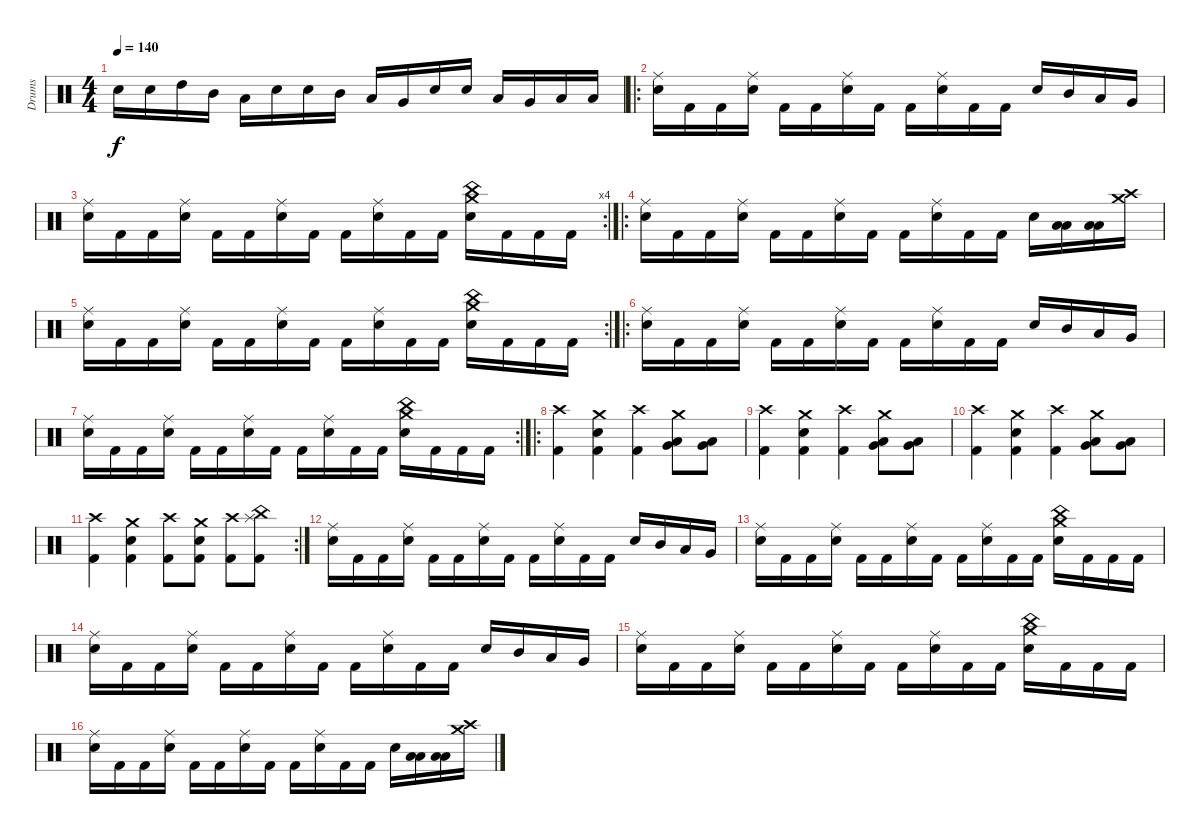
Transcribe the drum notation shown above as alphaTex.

\track ("Drums" "Drums") {instrument percussion}
\staff {score}
\articulation defaults
\ts (4 4)
\tempo 140
\clef neutral
\ks c "Snare (hit) 2".16{dy f} "Snare (hit) 2".16 "High Tom (hit)".16 "Mid Tom (hit)".16 "Low Tom (hit)".16 "Snare (hit) 2".16 "Snare (hit) 2".16 "Mid Tom (hit)".16 "Low Tom (hit)".16 "Very Low Tom (hit)".16 "Snare (hit) 2".16 "Snare (hit) 2".16 "Low Tom (hit)".16 "Very Low Tom (hit)".16 "Low Floor Tom (hit)".16 "Low Floor Tom (hit)".16
|
\ro
("Ride (middle)" "Snare (hit) 2").16 "Kick (hit) 2".16 "Kick (hit) 2".16 ("Ride (middle)" "Snare (hit) 2").16 "Kick (hit) 2".16 "Kick (hit) 2".16 ("Ride (middle)" "Snare (hit) 2").16 "Kick (hit) 2".16 "Kick (hit) 2".16 ("Ride (middle)" "Snare (hit) 2").16 "Kick (hit) 2".16 "Kick (hit) 2".16 "Snare (hit) 2".16 "Mid Tom (hit)".16 "Low Tom (hit)".16 "Very Low Tom (hit)".16 |
\rc 4
("Ride (middle)" "Snare (hit) 2").16 "Kick (hit) 2".16 "Kick (hit) 2".16 ("Ride (middle)" "Snare (hit) 2").16 "Kick (hit) 2".16 "Kick (hit) 2".16 ("Ride (middle)" "Snare (hit) 2").16 "Kick (hit) 2".16 "Kick (hit) 2".16 ("Ride (middle)" "Snare (hit) 2").16 "Kick (hit) 2".16 "Kick (hit) 2".16 ("Crash medium (hit)" "China (hit)" "Snare (hit) 2").16 "Kick (hit) 2".16 "Kick (hit) 2".16 "Kick (hit) 2".16 |
\ro
("Ride (middle)" "Snare (hit) 2").16 "Kick (hit) 2".16 "Kick (hit) 2".16 ("Ride (middle)" "Snare (hit) 2").16 "Kick (hit) 2".16 "Kick (hit) 2".16 ("Ride (middle)" "Snare (hit) 2").16 "Kick (hit) 2".16 "Kick (hit) 2".16 ("Ride (middle)" "Snare (hit) 2").16 "Kick (hit) 2".16 "Kick (hit) 2".16 "Snare (hit) 2".16 ("Low Tom (hit)" "Low Floor Tom (hit)").16 ("Low Tom (hit)" "Low Floor Tom (hit)").16 ("Crash high (hit)" "Crash medium (hit)").16 |
\rc 2
("Ride (middle)" "Snare (hit) 2").16 "Kick (hit) 2".16 "Kick (hit) 2".16 ("Ride (middle)" "Snare (hit) 2").16 "Kick (hit) 2".16 "Kick (hit) 2".16 ("Ride (middle)" "Snare (hit) 2").16 "Kick (hit) 2".16 "Kick (hit) 2".16 ("Ride (middle)" "Snare (hit) 2").16 "Kick (hit) 2".16 "Kick (hit) 2".16 ("Crash medium (hit)" "China (hit)" "Snare (hit) 2").16 "Kick (hit) 2".16 "Kick (hit) 2".16 "Kick (hit) 2".16 |
\ro
("Ride (middle)" "Snare (hit) 2").16 "Kick (hit) 2".16 "Kick (hit) 2".16 ("Ride (middle)" "Snare (hit) 2").16 "Kick (hit) 2".16 "Kick (hit) 2".16 ("Ride (middle)" "Snare (hit) 2").16 "Kick (hit) 2".16 "Kick (hit) 2".16 ("Ride (middle)" "Snare (hit) 2").16 "Kick (hit) 2".16 "Kick (hit) 2".16 "Snare (hit) 2".16 "Mid Tom (hit)".16 "Low Tom (hit)".16 "Very Low Tom (hit)".16 |
\rc 2
("Ride (middle)" "Snare (hit) 2").16 "Kick (hit) 2".16 "Kick (hit) 2".16 ("Ride (middle)" "Snare (hit) 2").16 "Kick (hit) 2".16 "Kick (hit) 2".16 ("Ride (middle)" "Snare (hit) 2").16 "Kick (hit) 2".16 "Kick (hit) 2".16 ("Ride (middle)" "Snare (hit) 2").16 "Kick (hit) 2".16 "Kick (hit) 2".16 ("Crash medium (hit)" "China (hit)" "Snare (hit) 2").16 "Kick (hit) 2".16 "Kick (hit) 2".16 "Kick (hit) 2".16 |
\ro
("Crash high (hit)" "Kick (hit) 2").4 ("Crash medium (hit)" "Snare (hit) 2" "Kick (hit) 2").4 ("Crash high (hit)" "Kick (hit) 2").4 ("Crash medium (hit)" "Low Tom (hit)" "Very Low Tom (hit)").8 ("Low Tom (hit)" "Very Low Tom (hit)").8 |
("Crash high (hit)" "Kick (hit) 2").4 ("Crash medium (hit)" "Snare (hit) 2" "Kick (hit) 2").4 ("Crash high (hit)" "Kick (hit) 2").4 ("Crash medium (hit)" "Low Floor Tom (hit)" "Very Low Tom (hit)").8 ("Low Floor Tom (hit)" "Very Low Tom (hit)").8 |
("Crash high (hit)" "Kick (hit) 2").4 ("Crash medium (hit)" "Snare (hit) 2" "Kick (hit) 2").4 ("Crash high (hit)" "Kick (hit) 2").4 ("Crash medium (hit)" "Low Tom (hit)" "Very Low Tom (hit)").8 ("Low Tom (hit)" "Very Low Tom (hit)").8 |
\rc 2
("Crash high (hit)" "Kick (hit) 2").4 ("Crash medium (hit)" "Snare (hit) 2" "Kick (hit) 2").4 ("Crash high (hit)" "Kick (hit) 2").8 ("Crash medium (hit)" "Snare (hit) 2" "Kick (hit) 2").8 ("Crash high (hit)" "Kick (hit) 2").8 ("China (hit)" "Splash (hit)" "Kick (hit) 2").8 |
("Ride (middle)" "Snare (hit) 2").16 "Kick (hit) 2".16 "Kick (hit) 2".16 ("Ride (middle)" "Snare (hit) 2").16 "Kick (hit) 2".16 "Kick (hit) 2".16 ("Ride (middle)" "Snare (hit) 2").16 "Kick (hit) 2".16 "Kick (hit) 2".16 ("Ride (middle)" "Snare (hit) 2").16 "Kick (hit) 2".16 "Kick (hit) 2".16 "Snare (hit) 2".16 "Mid Tom (hit)".16 "Low Tom (hit)".16 "Very Low Tom (hit)".16 |
("Ride (middle)" "Snare (hit) 2").16 "Kick (hit) 2".16 "Kick (hit) 2".16 ("Ride (middle)" "Snare (hit) 2").16 "Kick (hit) 2".16 "Kick (hit) 2".16 ("Ride (middle)" "Snare (hit) 2").16 "Kick (hit) 2".16 "Kick (hit) 2".16 ("Ride (middle)" "Snare (hit) 2").16 "Kick (hit) 2".16 "Kick (hit) 2".16 ("Crash medium (hit)" "China (hit)" "Snare (hit) 2").16 "Kick (hit) 2".16 "Kick (hit) 2".16 "Kick (hit) 2".16 |
("Ride (middle)" "Snare (hit) 2").16 "Kick (hit) 2".16 "Kick (hit) 2".16 ("Ride (middle)" "Snare (hit) 2").16 "Kick (hit) 2".16 "Kick (hit) 2".16 ("Ride (middle)" "Snare (hit) 2").16 "Kick (hit) 2".16 "Kick (hit) 2".16 ("Ride (middle)" "Snare (hit) 2").16 "Kick (hit) 2".16 "Kick (hit) 2".16 "Snare (hit) 2".16 "Mid Tom (hit)".16 "Low Tom (hit)".16 "Very Low Tom (hit)".16 |
("Ride (middle)" "Snare (hit) 2").16 "Kick (hit) 2".16 "Kick (hit) 2".16 ("Ride (middle)" "Snare (hit) 2").16 "Kick (hit) 2".16 "Kick (hit) 2".16 ("Ride (middle)" "Snare (hit) 2").16 "Kick (hit) 2".16 "Kick (hit) 2".16 ("Ride (middle)" "Snare (hit) 2").16 "Kick (hit) 2".16 "Kick (hit) 2".16 ("Crash medium (hit)" "China (hit)" "Snare (hit) 2").16 "Kick (hit) 2".16 "Kick (hit) 2".16 "Kick (hit) 2".16 |
("Ride (middle)" "Snare (hit) 2").16 "Kick (hit) 2".16 "Kick (hit) 2".16 ("Ride (middle)" "Snare (hit) 2").16 "Kick (hit) 2".16 "Kick (hit) 2".16 ("Ride (middle)" "Snare (hit) 2").16 "Kick (hit) 2".16 "Kick (hit) 2".16 ("Ride (middle)" "Snare (hit) 2").16 "Kick (hit) 2".16 "Kick (hit) 2".16 "Snare (hit) 2".16 ("Low Tom (hit)" "Low Floor Tom (hit)").16 ("Low Tom (hit)" "Low Floor Tom (hit)").16 ("Crash high (hit)" "Crash medium (hit)").16
